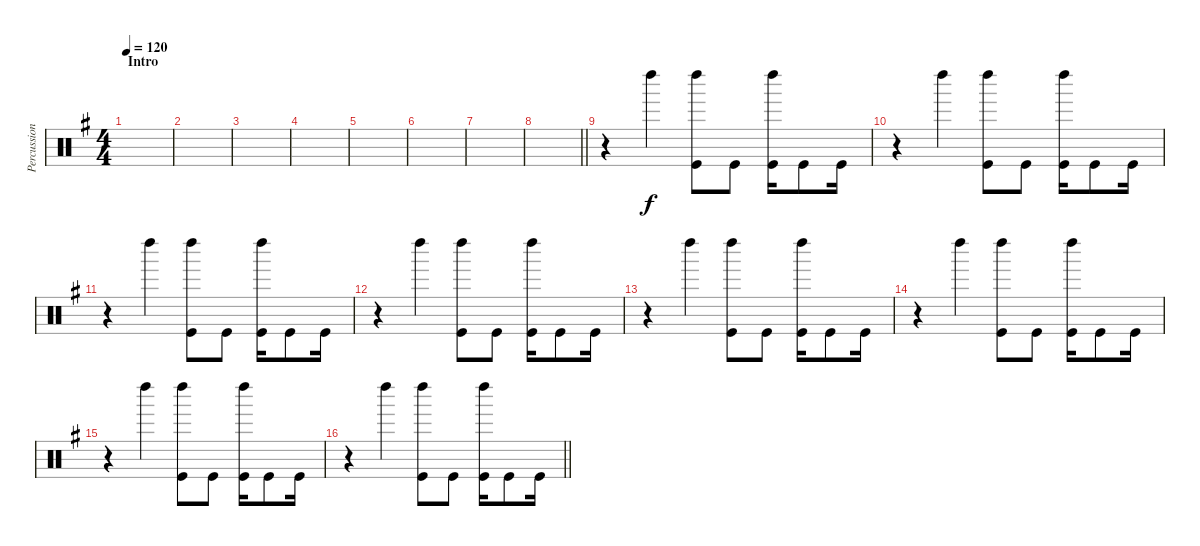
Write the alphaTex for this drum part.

\track ("Percussion" "Percussion") {instrument percussion}
\staff {score}
\articulation defaults
\ts (4 4)
\section ("" "Intro")
\tempo 120
\clef neutral
\ks eminor
|
|
|
|
|
|
|
\barLineRight lightlight
|
r.4 "Left Maraca (hit)".4 ("Kick (hit)" "Left Maraca (hit)").8 "Kick (hit)".8 ("Kick (hit)" "Left Maraca (hit)").16 "Kick (hit)".8 "Kick (hit)".16 |
r.4 "Left Maraca (hit)".4 ("Kick (hit)" "Left Maraca (hit)").8 "Kick (hit)".8 ("Kick (hit)" "Left Maraca (hit)").16 "Kick (hit)".8 "Kick (hit)".16 |
r.4 "Left Maraca (hit)".4 ("Kick (hit)" "Left Maraca (hit)").8 "Kick (hit)".8 ("Kick (hit)" "Left Maraca (hit)").16 "Kick (hit)".8 "Kick (hit)".16 |
r.4 "Left Maraca (hit)".4 ("Kick (hit)" "Left Maraca (hit)").8 "Kick (hit)".8 ("Kick (hit)" "Left Maraca (hit)").16 "Kick (hit)".8 "Kick (hit)".16 |
r.4 "Left Maraca (hit)".4 ("Kick (hit)" "Left Maraca (hit)").8 "Kick (hit)".8 ("Kick (hit)" "Left Maraca (hit)").16 "Kick (hit)".8 "Kick (hit)".16 |
r.4 "Left Maraca (hit)".4 ("Kick (hit)" "Left Maraca (hit)").8 "Kick (hit)".8 ("Kick (hit)" "Left Maraca (hit)").16 "Kick (hit)".8 "Kick (hit)".16 |
r.4 "Left Maraca (hit)".4 ("Kick (hit)" "Left Maraca (hit)").8 "Kick (hit)".8 ("Kick (hit)" "Left Maraca (hit)").16 "Kick (hit)".8 "Kick (hit)".16 |
\barLineRight lightlight
r.4 "Left Maraca (hit)".4 ("Kick (hit)" "Left Maraca (hit)").8 "Kick (hit)".8 ("Kick (hit)" "Left Maraca (hit)").16 "Kick (hit)".8 "Kick (hit)".16
